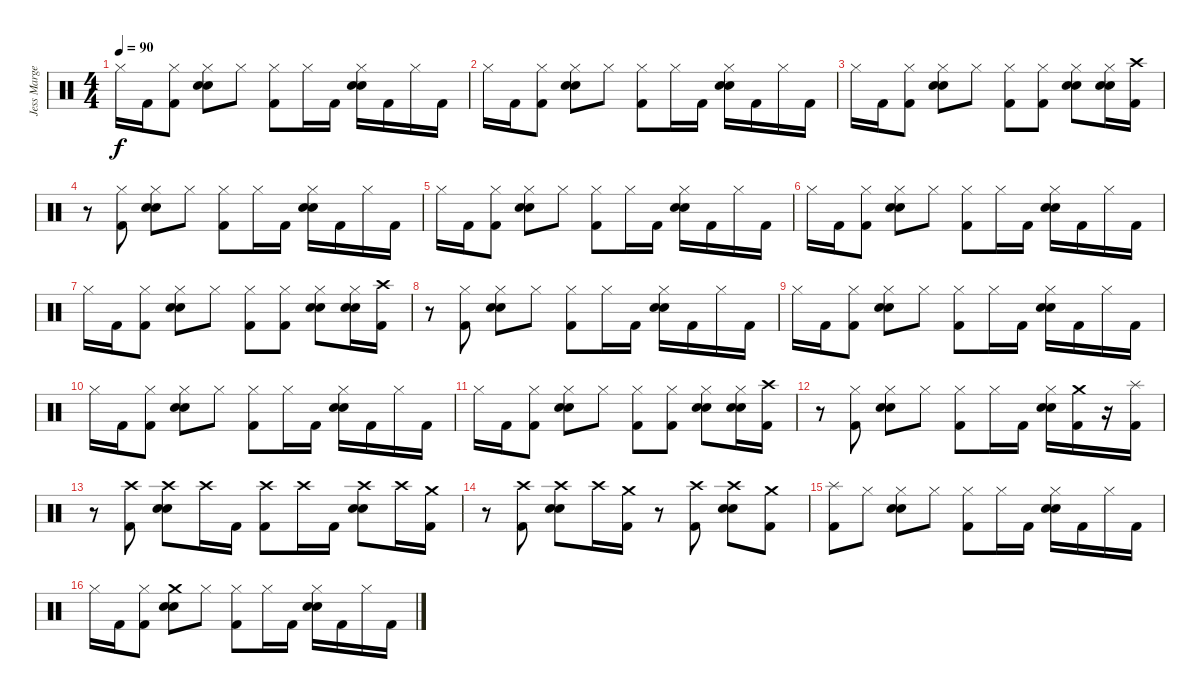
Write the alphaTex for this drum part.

\track ("Jess Margera" "Jess Marge") {instrument percussion}
\staff {score}
\articulation defaults
\ts (4 4)
\tempo 90
\clef neutral
\ks c "Hi-Hat (closed)".16{dy f} "Kick (hit) 2".16
("Hi-Hat (closed)" "Kick (hit) 2").8 ("Hi-Hat (closed)" "Snare (hit) 2" "Electric Snare (hit)").8 "Hi-Hat (closed)".8 ("Hi-Hat (closed)" "Kick (hit) 2").8 "Hi-Hat (closed)".16 "Kick (hit) 2".16 ("Hi-Hat (closed)" "Snare (hit) 2" "Electric Snare (hit)").16 "Kick (hit) 2".16 "Hi-Hat (closed)".16 "Kick (hit) 2".16 |
"Hi-Hat (closed)".16 "Kick (hit) 2".16 ("Hi-Hat (closed)" "Kick (hit) 2").8 ("Hi-Hat (closed)" "Snare (hit) 2" "Electric Snare (hit)").8 "Hi-Hat (closed)".8 ("Hi-Hat (closed)" "Kick (hit) 2").8 "Hi-Hat (closed)".16 "Kick (hit) 2".16 ("Hi-Hat (closed)" "Snare (hit) 2" "Electric Snare (hit)").16 "Kick (hit) 2".16 "Hi-Hat (closed)".16 "Kick (hit) 2".16 |
"Hi-Hat (closed)".16 "Kick (hit) 2".16 ("Hi-Hat (closed)" "Kick (hit) 2").8 ("Hi-Hat (closed)" "Snare (hit) 2" "Electric Snare (hit)").8 "Hi-Hat (closed)".8 ("Hi-Hat (closed)" "Kick (hit) 2").8 ("Hi-Hat (closed)" "Kick (hit) 2").8 ("Hi-Hat (closed)" "Snare (hit) 2" "Electric Snare (hit)").8 ("Hi-Hat (closed)" "Snare (hit) 2" "Electric Snare (hit)").16 ("Crash high (hit)" "Kick (hit) 2").16 |
r.8 ("Hi-Hat (closed)" "Kick (hit) 2").8 ("Hi-Hat (closed)" "Snare (hit) 2" "Electric Snare (hit)").8 "Hi-Hat (closed)".8 ("Hi-Hat (closed)" "Kick (hit) 2").8 "Hi-Hat (closed)".16 "Kick (hit) 2".16 ("Hi-Hat (closed)" "Snare (hit) 2" "Electric Snare (hit)").16 "Kick (hit) 2".16 "Hi-Hat (closed)".16 "Kick (hit) 2".16 |
"Hi-Hat (closed)".16 "Kick (hit) 2".16 ("Hi-Hat (closed)" "Kick (hit) 2").8 ("Hi-Hat (closed)" "Snare (hit) 2" "Electric Snare (hit)").8 "Hi-Hat (closed)".8 ("Hi-Hat (closed)" "Kick (hit) 2").8 "Hi-Hat (closed)".16 "Kick (hit) 2".16 ("Hi-Hat (closed)" "Snare (hit) 2" "Electric Snare (hit)").16 "Kick (hit) 2".16 "Hi-Hat (closed)".16 "Kick (hit) 2".16 |
"Hi-Hat (closed)".16 "Kick (hit) 2".16 ("Hi-Hat (closed)" "Kick (hit) 2").8 ("Hi-Hat (closed)" "Snare (hit) 2" "Electric Snare (hit)").8 "Hi-Hat (closed)".8 ("Hi-Hat (closed)" "Kick (hit) 2").8 "Hi-Hat (closed)".16 "Kick (hit) 2".16 ("Hi-Hat (closed)" "Snare (hit) 2" "Electric Snare (hit)").16 "Kick (hit) 2".16 "Hi-Hat (closed)".16 "Kick (hit) 2".16 |
"Hi-Hat (closed)".16 "Kick (hit) 2".16 ("Hi-Hat (closed)" "Kick (hit) 2").8 ("Hi-Hat (closed)" "Snare (hit) 2" "Electric Snare (hit)").8 "Hi-Hat (closed)".8 ("Hi-Hat (closed)" "Kick (hit) 2").8 ("Hi-Hat (closed)" "Kick (hit) 2").8 ("Hi-Hat (closed)" "Snare (hit) 2" "Electric Snare (hit)").8 ("Hi-Hat (closed)" "Snare (hit) 2" "Electric Snare (hit)").16 ("Crash high (hit)" "Kick (hit) 2").16 |
r.8 ("Hi-Hat (closed)" "Kick (hit) 2").8 ("Hi-Hat (closed)" "Snare (hit) 2" "Electric Snare (hit)").8 "Hi-Hat (closed)".8 ("Hi-Hat (closed)" "Kick (hit) 2").8 "Hi-Hat (closed)".16 "Kick (hit) 2".16 ("Hi-Hat (closed)" "Snare (hit) 2" "Electric Snare (hit)").16 "Kick (hit) 2".16 "Hi-Hat (closed)".16 "Kick (hit) 2".16 |
"Hi-Hat (closed)".16 "Kick (hit) 2".16 ("Hi-Hat (closed)" "Kick (hit) 2").8 ("Hi-Hat (closed)" "Snare (hit) 2" "Electric Snare (hit)").8 "Hi-Hat (closed)".8 ("Hi-Hat (closed)" "Kick (hit) 2").8 "Hi-Hat (closed)".16 "Kick (hit) 2".16 ("Hi-Hat (closed)" "Snare (hit) 2" "Electric Snare (hit)").16 "Kick (hit) 2".16 "Hi-Hat (closed)".16 "Kick (hit) 2".16 |
"Hi-Hat (closed)".16 "Kick (hit) 2".16 ("Hi-Hat (closed)" "Kick (hit) 2").8 ("Hi-Hat (closed)" "Snare (hit) 2" "Electric Snare (hit)").8 "Hi-Hat (closed)".8 ("Hi-Hat (closed)" "Kick (hit) 2").8 "Hi-Hat (closed)".16 "Kick (hit) 2".16 ("Hi-Hat (closed)" "Snare (hit) 2" "Electric Snare (hit)").16 "Kick (hit) 2".16 "Hi-Hat (closed)".16 "Kick (hit) 2".16 |
"Hi-Hat (closed)".16 "Kick (hit) 2".16 ("Hi-Hat (closed)" "Kick (hit) 2").8 ("Hi-Hat (closed)" "Snare (hit) 2" "Electric Snare (hit)").8 "Hi-Hat (closed)".8 ("Hi-Hat (closed)" "Kick (hit) 2").8 ("Hi-Hat (closed)" "Kick (hit) 2").8 ("Hi-Hat (closed)" "Snare (hit) 2" "Electric Snare (hit)").8 ("Hi-Hat (closed)" "Snare (hit) 2" "Electric Snare (hit)").16 ("Crash high (hit)" "Kick (hit) 2").16 |
r.8 ("Hi-Hat (closed)" "Kick (hit) 2").8 ("Hi-Hat (closed)" "Snare (hit) 2" "Electric Snare (hit)").8 "Hi-Hat (closed)".8 ("Hi-Hat (closed)" "Kick (hit) 2").8 "Hi-Hat (closed)".16 "Kick (hit) 2".16 ("Hi-Hat (closed)" "Snare (hit) 2" "Electric Snare (hit)").16 ("Crash medium (hit)" "Kick (hit) 2").16 r.16 ("Splash (hit)" "Kick (hit) 2").16 |
r.8 ("Crash high (hit)" "Kick (hit) 2").8 ("Crash high (hit)" "Snare (hit) 2" "Electric Snare (hit)").8 "Crash high (hit)".16 "Kick (hit) 2".16 ("Crash high (hit)" "Kick (hit) 2").8 "Crash high (hit)".16 "Kick (hit) 2".16 ("Crash high (hit)" "Snare (hit) 2" "Electric Snare (hit)").8 "Crash high (hit)".16 ("Crash medium (hit)" "Kick (hit) 2").16 |
r.8 ("Crash high (hit)" "Kick (hit) 2").8 ("Crash high (hit)" "Electric Snare (hit)" "Snare (hit) 2").8 "Crash high (hit)".16 ("Crash medium (hit)" "Kick (hit) 2").16 r.8 ("Crash high (hit)" "Kick (hit) 2").8 ("Crash high (hit)" "Electric Snare (hit)" "Snare (hit) 2").8 ("Crash medium (hit)" "Kick (hit) 2").8 |
("Splash (hit)" "Kick (hit) 2").8 "Hi-Hat (closed)".8 ("Hi-Hat (closed)" "Electric Snare (hit)" "Snare (hit) 2").8 "Hi-Hat (closed)".8 ("Hi-Hat (closed)" "Kick (hit) 2").8 "Hi-Hat (closed)".16 "Kick (hit) 2".16 ("Hi-Hat (closed)" "Electric Snare (hit)" "Snare (hit) 2").16 "Kick (hit) 2".16 "Hi-Hat (closed)".16 "Kick (hit) 2".16 |
"Hi-Hat (closed)".16 "Kick (hit) 2".16 ("Hi-Hat (closed)" "Kick (hit) 2").8 ("Crash medium (hit)" "Electric Snare (hit)" "Snare (hit) 2").8 "Hi-Hat (closed)".8 ("Hi-Hat (closed)" "Kick (hit) 2").8 "Hi-Hat (closed)".16 "Kick (hit) 2".16 ("Hi-Hat (closed)" "Electric Snare (hit)" "Snare (hit) 2").16 "Kick (hit) 2".16 "Hi-Hat (closed)".16 "Kick (hit) 2".16
